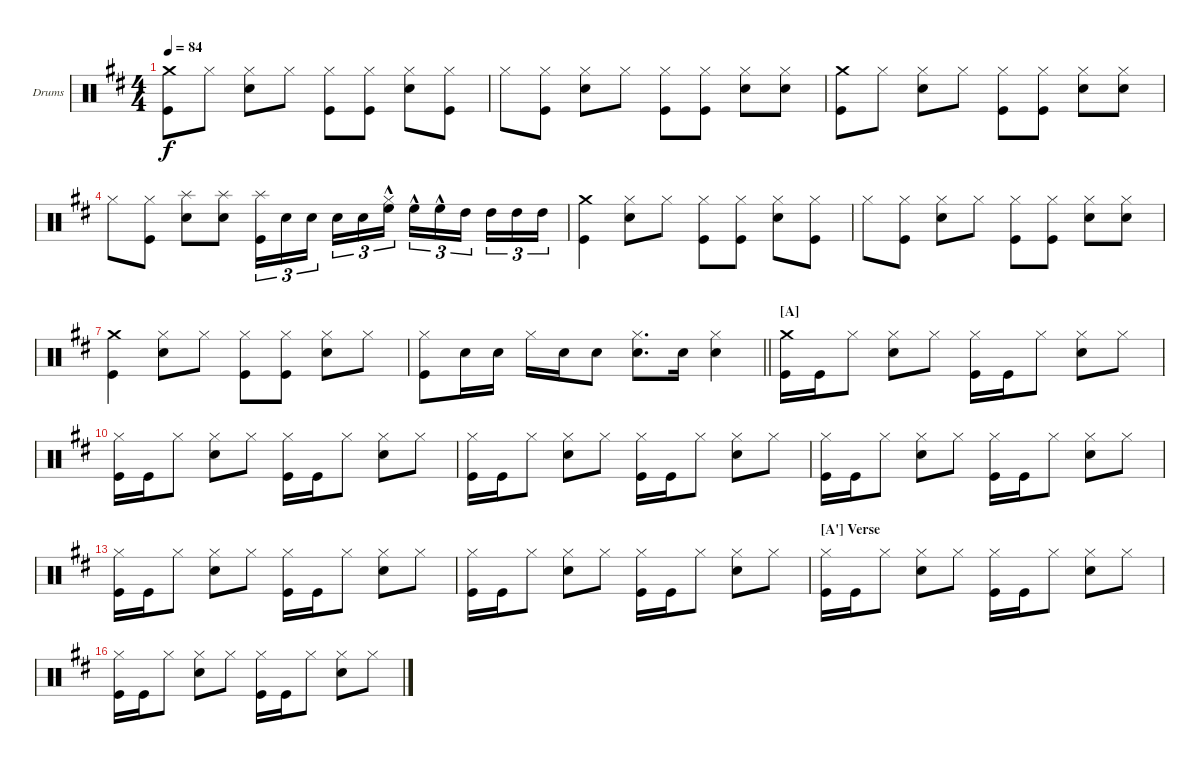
\bracketExtendMode nobrackets
\firstSystemTrackNameOrientation horizontal
\otherSystemsTrackNameOrientation horizontal
\defaultBarNumberDisplay FirstOfSystem
\track ("Drumkit" "Drums") {instrument percussion}
\staff {score}
\articulation defaults
\ts (4 4)
\tempo 84
\clef neutral
\ks d
("Kick (hit)" "Crash medium (hit)").8{dy f} "Hi-Hat (closed)".8 ("Snare (hit) 2" "Hi-Hat (closed)").8 "Hi-Hat (closed)".8 ("Kick (hit)" "Hi-Hat (closed)").8 ("Kick (hit)" "Hi-Hat (closed)").8 ("Snare (hit) 2" "Hi-Hat (closed)").8 ("Kick (hit)" "Hi-Hat (closed)").8 |
"Hi-Hat (closed)".8 ("Kick (hit)" "Hi-Hat (closed)").8 ("Snare (hit) 2" "Hi-Hat (closed)").8 "Hi-Hat (closed)".8 ("Kick (hit)" "Hi-Hat (closed)").8 ("Kick (hit)" "Hi-Hat (closed)").8 ("Snare (hit) 2" "Hi-Hat (closed)").8 ("Snare (hit) 2" "Hi-Hat (closed)").8 |
("Kick (hit)" "Crash medium (hit)").8 "Hi-Hat (closed)".8 ("Snare (hit) 2" "Hi-Hat (closed)").8 "Hi-Hat (closed)".8 ("Kick (hit)" "Hi-Hat (closed)").8 ("Kick (hit)" "Hi-Hat (closed)").8 ("Snare (hit) 2" "Hi-Hat (closed)").8 ("Snare (hit) 2" "Hi-Hat (closed)").8 |
"Hi-Hat (closed)".8 ("Kick (hit)" "Hi-Hat (closed)").8 ("Snare (hit) 2" "Splash (hit)").8 ("Snare (hit) 2" "Splash (hit)").8 ("Kick (hit)" "Splash (hit)").16{tu (3 2)} "Snare (hit) 2".16{tu (3 2)} "Snare (hit) 2".16{tu (3 2)} "Snare (hit) 2".16{tu (3 2)} "Snare (hit) 2".16{tu (3 2)} ("High Floor Tom (hit)"{hac} "Hi-Hat (closed)"{hac}).16{tu (3 2)} "High Floor Tom (hit)"{hac}.16{tu (3 2)} "High Floor Tom (hit)"{hac}.16{tu (3 2)} "High Tom (hit)".16{tu (3 2)} "High Tom (hit)".16{tu (3 2)} "High Tom (hit)".16{tu (3 2)} "High Tom (hit)".16{tu (3 2)} |
("Kick (hit)" "Crash medium (hit)").4 ("Snare (hit) 2" "Hi-Hat (closed)").8 "Hi-Hat (closed)".8 ("Kick (hit)" "Hi-Hat (closed)").8 ("Kick (hit)" "Hi-Hat (closed)").8 ("Snare (hit) 2" "Hi-Hat (closed)").8 ("Kick (hit)" "Hi-Hat (closed)").8 |
"Hi-Hat (closed)".8 ("Kick (hit)" "Hi-Hat (closed)").8 ("Snare (hit) 2" "Hi-Hat (closed)").8 "Hi-Hat (closed)".8 ("Kick (hit)" "Hi-Hat (closed)").8 ("Kick (hit)" "Hi-Hat (closed)").8 ("Snare (hit) 2" "Hi-Hat (closed)").8 ("Snare (hit) 2" "Hi-Hat (closed)").8 |
("Kick (hit)" "Crash medium (hit)").4 ("Snare (hit) 2" "Hi-Hat (closed)").8 "Hi-Hat (closed)".8 ("Kick (hit)" "Hi-Hat (closed)").8 ("Kick (hit)" "Hi-Hat (closed)").8 ("Snare (hit) 2" "Hi-Hat (closed)").8 "Hi-Hat (closed)".8 |
\barLineRight lightlight
("Kick (hit)" "Hi-Hat (closed)").8 "Snare (hit) 2".16 "Snare (hit) 2".16 "Hi-Hat (closed)".16 "Snare (hit) 2".16 "Snare (hit) 2".8 ("Snare (hit) 2" "Hi-Hat (closed)").8{d} "Snare (hit) 2".16 ("Snare (hit) 2" "Hi-Hat (closed)").4 |
\section ("A" "")
("Kick (hit)" "Crash medium (hit)").16 "Kick (hit)".16 "Hi-Hat (closed)".8 ("Snare (hit) 2" "Hi-Hat (closed)").8 "Hi-Hat (closed)".8 ("Kick (hit)" "Hi-Hat (closed)").16 "Kick (hit)".16 "Hi-Hat (closed)".8 ("Snare (hit) 2" "Hi-Hat (closed)").8 "Hi-Hat (closed)".8 |
("Kick (hit)" "Hi-Hat (closed)").16 "Kick (hit)".16 "Hi-Hat (closed)".8 ("Snare (hit) 2" "Hi-Hat (closed)").8 "Hi-Hat (closed)".8 ("Kick (hit)" "Hi-Hat (closed)").16 "Kick (hit)".16 "Hi-Hat (closed)".8 ("Snare (hit) 2" "Hi-Hat (closed)").8 "Hi-Hat (closed)".8 |
("Kick (hit)" "Hi-Hat (closed)").16 "Kick (hit)".16 "Hi-Hat (closed)".8 ("Snare (hit) 2" "Hi-Hat (closed)").8 "Hi-Hat (closed)".8 ("Kick (hit)" "Hi-Hat (closed)").16 "Kick (hit)".16 "Hi-Hat (closed)".8 ("Snare (hit) 2" "Hi-Hat (closed)").8 "Hi-Hat (closed)".8 |
("Kick (hit)" "Hi-Hat (closed)").16 "Kick (hit)".16 "Hi-Hat (closed)".8 ("Snare (hit) 2" "Hi-Hat (closed)").8 "Hi-Hat (closed)".8 ("Kick (hit)" "Hi-Hat (closed)").16 "Kick (hit)".16 "Hi-Hat (closed)".8 ("Snare (hit) 2" "Hi-Hat (closed)").8 "Hi-Hat (closed)".8 |
("Kick (hit)" "Hi-Hat (closed)").16 "Kick (hit)".16 "Hi-Hat (closed)".8 ("Snare (hit) 2" "Hi-Hat (closed)").8 "Hi-Hat (closed)".8 ("Kick (hit)" "Hi-Hat (closed)").16 "Kick (hit)".16 "Hi-Hat (closed)".8 ("Snare (hit) 2" "Hi-Hat (closed)").8 "Hi-Hat (closed)".8 |
("Kick (hit)" "Hi-Hat (closed)").16 "Kick (hit)".16 "Hi-Hat (closed)".8 ("Snare (hit) 2" "Hi-Hat (closed)").8 "Hi-Hat (closed)".8 ("Kick (hit)" "Hi-Hat (closed)").16 "Kick (hit)".16 "Hi-Hat (closed)".8 ("Snare (hit) 2" "Hi-Hat (closed)").8 "Hi-Hat (closed)".8 |
\section ("A'" "Verse")
("Kick (hit)" "Hi-Hat (closed)").16 "Kick (hit)".16 "Hi-Hat (closed)".8 ("Snare (hit) 2" "Hi-Hat (closed)").8 "Hi-Hat (closed)".8 ("Kick (hit)" "Hi-Hat (closed)").16 "Kick (hit)".16 "Hi-Hat (closed)".8 ("Snare (hit) 2" "Hi-Hat (closed)").8 "Hi-Hat (closed)".8 |
("Kick (hit)" "Hi-Hat (closed)").16 "Kick (hit)".16 "Hi-Hat (closed)".8 ("Snare (hit) 2" "Hi-Hat (closed)").8 "Hi-Hat (closed)".8 ("Kick (hit)" "Hi-Hat (closed)").16 "Kick (hit)".16 "Hi-Hat (closed)".8 ("Snare (hit) 2" "Hi-Hat (closed)").8 "Hi-Hat (closed)".8
